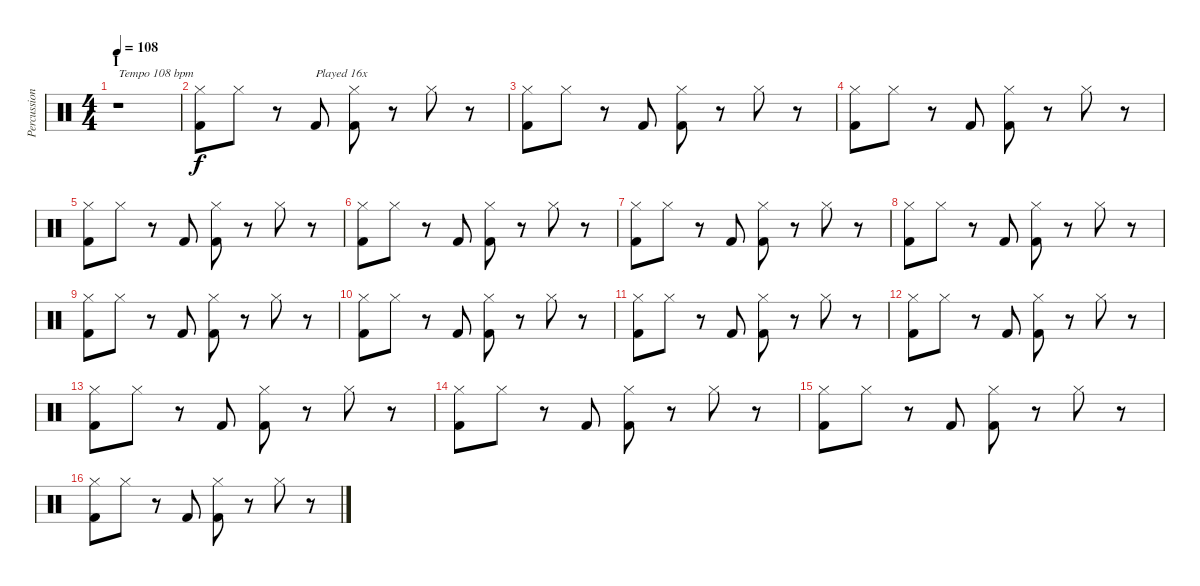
\track ("Percussion" "Percussion") {instrument percussion}
\staff {score}
\articulation defaults
\ts (4 4)
\section ("" "I")
\tempo 108
\clef neutral
\ks c
r.1{txt "Tempo 108 bpm" dy f} |
("Hi-Hat (closed)" "Kick (hit) 2").8 "Hi-Hat (closed)".8 r.8 "Kick (hit) 2".8{txt "Played 16x"} ("Hi-Hat (closed)" "Kick (hit) 2").8 r.8 "Hi-Hat (closed)".8 r.8 |
("Hi-Hat (closed)" "Kick (hit) 2").8 "Hi-Hat (closed)".8 r.8 "Kick (hit) 2".8 ("Hi-Hat (closed)" "Kick (hit) 2").8 r.8 "Hi-Hat (closed)".8 r.8 |
("Hi-Hat (closed)" "Kick (hit) 2").8 "Hi-Hat (closed)".8 r.8 "Kick (hit) 2".8 ("Hi-Hat (closed)" "Kick (hit) 2").8 r.8 "Hi-Hat (closed)".8 r.8 |
("Hi-Hat (closed)" "Kick (hit) 2").8 "Hi-Hat (closed)".8 r.8 "Kick (hit) 2".8 ("Hi-Hat (closed)" "Kick (hit) 2").8 r.8 "Hi-Hat (closed)".8 r.8 |
("Hi-Hat (closed)" "Kick (hit) 2").8 "Hi-Hat (closed)".8 r.8 "Kick (hit) 2".8 ("Hi-Hat (closed)" "Kick (hit) 2").8 r.8 "Hi-Hat (closed)".8 r.8 |
("Hi-Hat (closed)" "Kick (hit) 2").8 "Hi-Hat (closed)".8 r.8 "Kick (hit) 2".8 ("Hi-Hat (closed)" "Kick (hit) 2").8 r.8 "Hi-Hat (closed)".8 r.8 |
("Hi-Hat (closed)" "Kick (hit) 2").8 "Hi-Hat (closed)".8 r.8 "Kick (hit) 2".8 ("Hi-Hat (closed)" "Kick (hit) 2").8 r.8 "Hi-Hat (closed)".8 r.8 |
("Hi-Hat (closed)" "Kick (hit) 2").8 "Hi-Hat (closed)".8 r.8 "Kick (hit) 2".8 ("Hi-Hat (closed)" "Kick (hit) 2").8 r.8 "Hi-Hat (closed)".8 r.8 |
("Hi-Hat (closed)" "Kick (hit) 2").8 "Hi-Hat (closed)".8 r.8 "Kick (hit) 2".8 ("Hi-Hat (closed)" "Kick (hit) 2").8 r.8 "Hi-Hat (closed)".8 r.8 |
("Hi-Hat (closed)" "Kick (hit) 2").8 "Hi-Hat (closed)".8 r.8 "Kick (hit) 2".8 ("Hi-Hat (closed)" "Kick (hit) 2").8 r.8 "Hi-Hat (closed)".8 r.8 |
("Hi-Hat (closed)" "Kick (hit) 2").8 "Hi-Hat (closed)".8 r.8 "Kick (hit) 2".8 ("Hi-Hat (closed)" "Kick (hit) 2").8 r.8 "Hi-Hat (closed)".8 r.8 |
("Hi-Hat (closed)" "Kick (hit) 2").8 "Hi-Hat (closed)".8 r.8 "Kick (hit) 2".8 ("Hi-Hat (closed)" "Kick (hit) 2").8 r.8 "Hi-Hat (closed)".8 r.8 |
("Hi-Hat (closed)" "Kick (hit) 2").8 "Hi-Hat (closed)".8 r.8 "Kick (hit) 2".8 ("Hi-Hat (closed)" "Kick (hit) 2").8 r.8 "Hi-Hat (closed)".8 r.8 |
("Hi-Hat (closed)" "Kick (hit) 2").8 "Hi-Hat (closed)".8 r.8 "Kick (hit) 2".8 ("Hi-Hat (closed)" "Kick (hit) 2").8 r.8 "Hi-Hat (closed)".8 r.8 |
("Hi-Hat (closed)" "Kick (hit) 2").8 "Hi-Hat (closed)".8 r.8 "Kick (hit) 2".8 ("Hi-Hat (closed)" "Kick (hit) 2").8 r.8 "Hi-Hat (closed)".8 r.8
